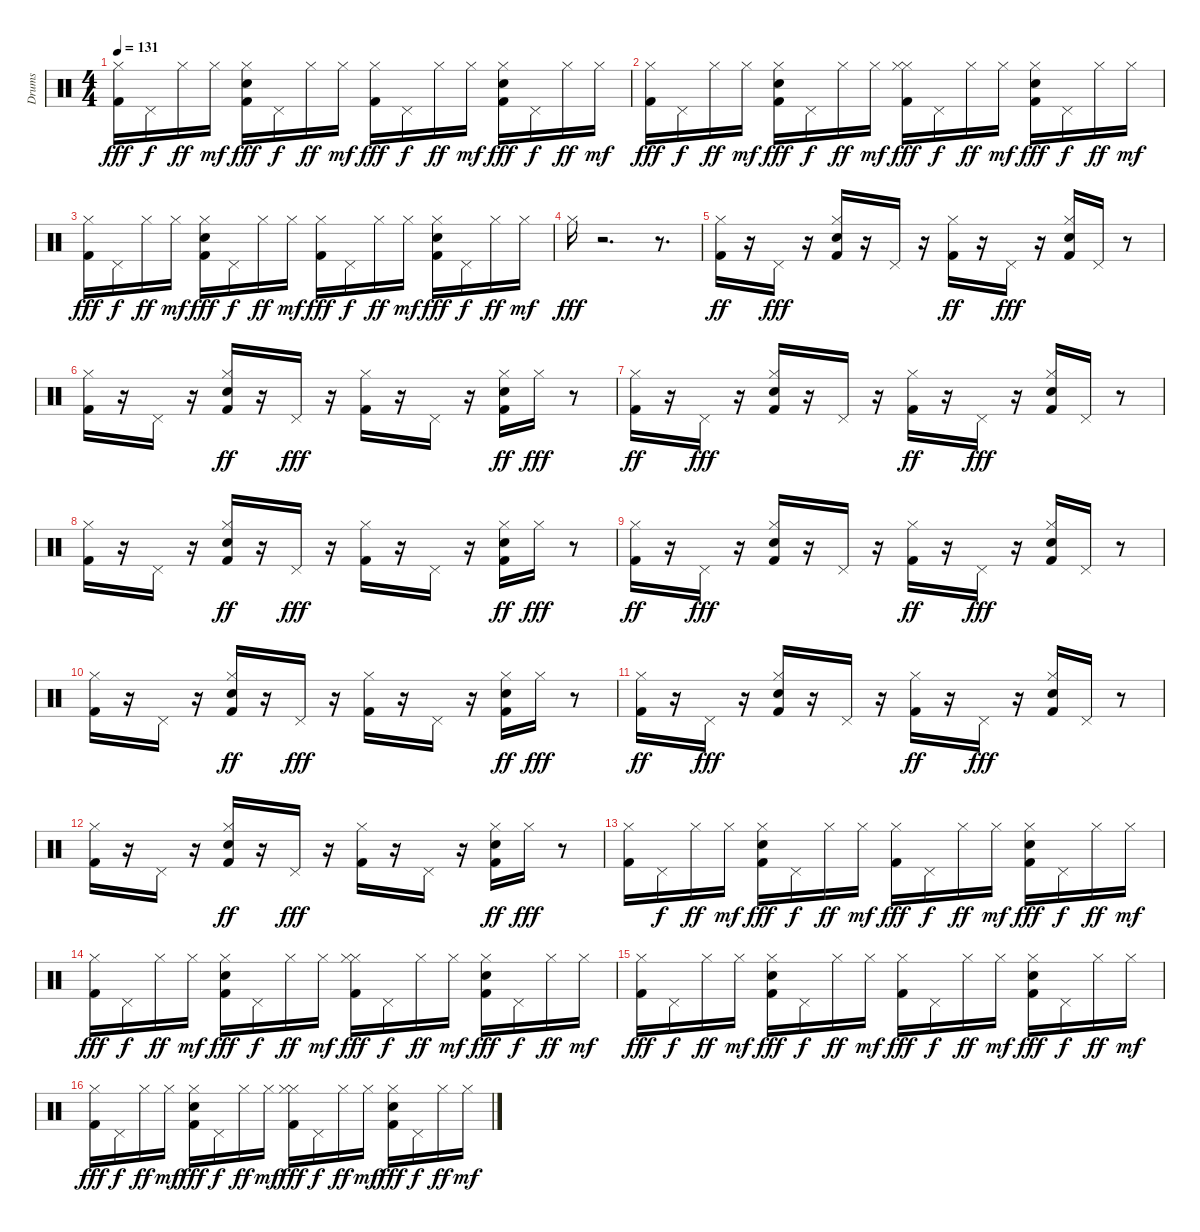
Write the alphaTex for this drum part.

\track ("Drums" "Drums") {instrument percussion}
\staff {score}
\articulation defaults
\ts (4 4)
\tempo 131
\clef neutral
\ks c
("Kick (hit) 2" "Hi-Hat (closed)").16{dy fff} "Pedal Hi-Hat (hit)".16{dy f} "Hi-Hat (closed)".16{dy ff} "Hi-Hat (closed)".16{dy mf} ("Kick (hit) 2" "Hand Clap (hit)" "Hi-Hat (closed)").16{dy fff} "Pedal Hi-Hat (hit)".16{dy f} "Hi-Hat (closed)".16{dy ff} "Hi-Hat (closed)".16{dy mf} ("Kick (hit) 2" "Hi-Hat (closed)").16{dy fff} "Pedal Hi-Hat (hit)".16{dy f} "Hi-Hat (closed)".16{dy ff} "Hi-Hat (closed)".16{dy mf} ("Kick (hit) 2" "Hand Clap (hit)" "Hi-Hat (closed)").16{dy fff} "Pedal Hi-Hat (hit)".16{dy f} "Hi-Hat (closed)".16{dy ff} "Hi-Hat (closed)".16{dy mf} |
("Kick (hit) 2" "Hi-Hat (closed)").16{dy fff} "Pedal Hi-Hat (hit)".16{dy f} "Hi-Hat (closed)".16{dy ff} "Hi-Hat (closed)".16{dy mf} ("Kick (hit) 2" "Hand Clap (hit)" "Hi-Hat (closed)").16{dy fff} "Pedal Hi-Hat (hit)".16{dy f} "Hi-Hat (closed)".16{dy ff} "Hi-Hat (closed)".16{dy mf} ("Kick (hit) 2" "Hi-Hat (closed)" "Hi-Hat (closed)").16{dy fff} "Pedal Hi-Hat (hit)".16{dy f} "Hi-Hat (closed)".16{dy ff} "Hi-Hat (closed)".16{dy mf} ("Kick (hit) 2" "Hand Clap (hit)" "Hi-Hat (closed)").16{dy fff} "Pedal Hi-Hat (hit)".16{dy f} "Hi-Hat (closed)".16{dy ff} "Hi-Hat (closed)".16{dy mf} |
("Kick (hit) 2" "Hi-Hat (closed)").16{dy fff} "Pedal Hi-Hat (hit)".16{dy f} "Hi-Hat (closed)".16{dy ff} "Hi-Hat (closed)".16{dy mf} ("Kick (hit) 2" "Hand Clap (hit)" "Hi-Hat (closed)").16{dy fff} "Pedal Hi-Hat (hit)".16{dy f} "Hi-Hat (closed)".16{dy ff} "Hi-Hat (closed)".16{dy mf} ("Kick (hit) 2" "Hi-Hat (closed)").16{dy fff} "Pedal Hi-Hat (hit)".16{dy f} "Hi-Hat (closed)".16{dy ff} "Hi-Hat (closed)".16{dy mf} ("Kick (hit) 2" "Hand Clap (hit)" "Hi-Hat (closed)").16{dy fff} "Pedal Hi-Hat (hit)".16{dy f} "Hi-Hat (closed)".16{dy ff} "Hi-Hat (closed)".16{dy mf} |
"Hi-Hat (closed)".16{dy fff} r.2{d} r.8{d} |
("Kick (hit) 2" "Hi-Hat (closed)").16{dy ff} r.16 "Pedal Hi-Hat (hit)".16{dy fff} r.16 ("Kick (hit) 2" "Hand Clap (hit)" "Hi-Hat (closed)").16 r.16 "Pedal Hi-Hat (hit)".16 r.16 ("Kick (hit) 2" "Hi-Hat (closed)").16{dy ff} r.16 "Pedal Hi-Hat (hit)".16{dy fff} r.16 ("Kick (hit) 2" "Hand Clap (hit)" "Hi-Hat (closed)").16 "Pedal Hi-Hat (hit)".16 r.8 |
("Kick (hit) 2" "Hi-Hat (closed)").16 r.16 "Pedal Hi-Hat (hit)".16 r.16 ("Kick (hit) 2" "Hand Clap (hit)" "Hi-Hat (closed)").16{dy ff} r.16 "Pedal Hi-Hat (hit)".16{dy fff} r.16 ("Kick (hit) 2" "Hi-Hat (closed)").16 r.16 "Pedal Hi-Hat (hit)".16 r.16 ("Kick (hit) 2" "Hand Clap (hit)" "Hi-Hat (closed)").16{dy ff} "Hi-Hat (closed)".16{dy fff} r.8 |
("Kick (hit) 2" "Hi-Hat (closed)").16{dy ff} r.16 "Pedal Hi-Hat (hit)".16{dy fff} r.16 ("Kick (hit) 2" "Hand Clap (hit)" "Hi-Hat (closed)").16 r.16 "Pedal Hi-Hat (hit)".16 r.16 ("Kick (hit) 2" "Hi-Hat (closed)").16{dy ff} r.16 "Pedal Hi-Hat (hit)".16{dy fff} r.16 ("Kick (hit) 2" "Hand Clap (hit)" "Hi-Hat (closed)").16 "Pedal Hi-Hat (hit)".16 r.8 |
("Kick (hit) 2" "Hi-Hat (closed)").16 r.16 "Pedal Hi-Hat (hit)".16 r.16 ("Kick (hit) 2" "Hand Clap (hit)" "Hi-Hat (closed)").16{dy ff} r.16 "Pedal Hi-Hat (hit)".16{dy fff} r.16 ("Kick (hit) 2" "Hi-Hat (closed)").16 r.16 "Pedal Hi-Hat (hit)".16 r.16 ("Kick (hit) 2" "Hand Clap (hit)" "Hi-Hat (closed)").16{dy ff} "Hi-Hat (closed)".16{dy fff} r.8 |
("Kick (hit) 2" "Hi-Hat (closed)").16{dy ff} r.16 "Pedal Hi-Hat (hit)".16{dy fff} r.16 ("Kick (hit) 2" "Hand Clap (hit)" "Hi-Hat (closed)").16 r.16 "Pedal Hi-Hat (hit)".16 r.16 ("Kick (hit) 2" "Hi-Hat (closed)").16{dy ff} r.16 "Pedal Hi-Hat (hit)".16{dy fff} r.16 ("Kick (hit) 2" "Hand Clap (hit)" "Hi-Hat (closed)").16 "Pedal Hi-Hat (hit)".16 r.8 |
("Kick (hit) 2" "Hi-Hat (closed)").16 r.16 "Pedal Hi-Hat (hit)".16 r.16 ("Kick (hit) 2" "Hand Clap (hit)" "Hi-Hat (closed)").16{dy ff} r.16 "Pedal Hi-Hat (hit)".16{dy fff} r.16 ("Kick (hit) 2" "Hi-Hat (closed)").16 r.16 "Pedal Hi-Hat (hit)".16 r.16 ("Kick (hit) 2" "Hand Clap (hit)" "Hi-Hat (closed)").16{dy ff} "Hi-Hat (closed)".16{dy fff} r.8 |
("Kick (hit) 2" "Hi-Hat (closed)").16{dy ff} r.16 "Pedal Hi-Hat (hit)".16{dy fff} r.16 ("Kick (hit) 2" "Hand Clap (hit)" "Hi-Hat (closed)").16 r.16 "Pedal Hi-Hat (hit)".16 r.16 ("Kick (hit) 2" "Hi-Hat (closed)").16{dy ff} r.16 "Pedal Hi-Hat (hit)".16{dy fff} r.16 ("Kick (hit) 2" "Hand Clap (hit)" "Hi-Hat (closed)").16 "Pedal Hi-Hat (hit)".16 r.8 |
("Kick (hit) 2" "Hi-Hat (closed)").16 r.16 "Pedal Hi-Hat (hit)".16 r.16 ("Kick (hit) 2" "Hand Clap (hit)" "Hi-Hat (closed)").16{dy ff} r.16 "Pedal Hi-Hat (hit)".16{dy fff} r.16 ("Kick (hit) 2" "Hi-Hat (closed)").16 r.16 "Pedal Hi-Hat (hit)".16 r.16 ("Kick (hit) 2" "Hand Clap (hit)" "Hi-Hat (closed)").16{dy ff} "Hi-Hat (closed)".16{dy fff} r.8 |
("Kick (hit) 2" "Hi-Hat (closed)").16 "Pedal Hi-Hat (hit)".16{dy f} "Hi-Hat (closed)".16{dy ff} "Hi-Hat (closed)".16{dy mf} ("Kick (hit) 2" "Hand Clap (hit)" "Hi-Hat (closed)").16{dy fff} "Pedal Hi-Hat (hit)".16{dy f} "Hi-Hat (closed)".16{dy ff} "Hi-Hat (closed)".16{dy mf} ("Kick (hit) 2" "Hi-Hat (closed)").16{dy fff} "Pedal Hi-Hat (hit)".16{dy f} "Hi-Hat (closed)".16{dy ff} "Hi-Hat (closed)".16{dy mf} ("Kick (hit) 2" "Hand Clap (hit)" "Hi-Hat (closed)").16{dy fff} "Pedal Hi-Hat (hit)".16{dy f} "Hi-Hat (closed)".16{dy ff} "Hi-Hat (closed)".16{dy mf} |
("Kick (hit) 2" "Hi-Hat (closed)").16{dy fff} "Pedal Hi-Hat (hit)".16{dy f} "Hi-Hat (closed)".16{dy ff} "Hi-Hat (closed)".16{dy mf} ("Kick (hit) 2" "Hand Clap (hit)" "Hi-Hat (closed)").16{dy fff} "Pedal Hi-Hat (hit)".16{dy f} "Hi-Hat (closed)".16{dy ff} "Hi-Hat (closed)".16{dy mf} ("Kick (hit) 2" "Hi-Hat (closed)" "Hi-Hat (closed)").16{dy fff} "Pedal Hi-Hat (hit)".16{dy f} "Hi-Hat (closed)".16{dy ff} "Hi-Hat (closed)".16{dy mf} ("Kick (hit) 2" "Hand Clap (hit)" "Hi-Hat (closed)").16{dy fff} "Pedal Hi-Hat (hit)".16{dy f} "Hi-Hat (closed)".16{dy ff} "Hi-Hat (closed)".16{dy mf} |
("Kick (hit) 2" "Hi-Hat (closed)").16{dy fff} "Pedal Hi-Hat (hit)".16{dy f} "Hi-Hat (closed)".16{dy ff} "Hi-Hat (closed)".16{dy mf} ("Kick (hit) 2" "Hand Clap (hit)" "Hi-Hat (closed)").16{dy fff} "Pedal Hi-Hat (hit)".16{dy f} "Hi-Hat (closed)".16{dy ff} "Hi-Hat (closed)".16{dy mf} ("Kick (hit) 2" "Hi-Hat (closed)").16{dy fff} "Pedal Hi-Hat (hit)".16{dy f} "Hi-Hat (closed)".16{dy ff} "Hi-Hat (closed)".16{dy mf} ("Kick (hit) 2" "Hand Clap (hit)" "Hi-Hat (closed)").16{dy fff} "Pedal Hi-Hat (hit)".16{dy f} "Hi-Hat (closed)".16{dy ff} "Hi-Hat (closed)".16{dy mf} |
("Kick (hit) 2" "Hi-Hat (closed)").16{dy fff} "Pedal Hi-Hat (hit)".16{dy f} "Hi-Hat (closed)".16{dy ff} "Hi-Hat (closed)".16{dy mf} ("Kick (hit) 2" "Hand Clap (hit)" "Hi-Hat (closed)").16{dy fff} "Pedal Hi-Hat (hit)".16{dy f} "Hi-Hat (closed)".16{dy ff} "Hi-Hat (closed)".16{dy mf} ("Kick (hit) 2" "Hi-Hat (closed)" "Hi-Hat (closed)").16{dy fff} "Pedal Hi-Hat (hit)".16{dy f} "Hi-Hat (closed)".16{dy ff} "Hi-Hat (closed)".16{dy mf} ("Kick (hit) 2" "Hand Clap (hit)" "Hi-Hat (closed)").16{dy fff} "Pedal Hi-Hat (hit)".16{dy f} "Hi-Hat (closed)".16{dy ff} "Hi-Hat (closed)".16{dy mf}
